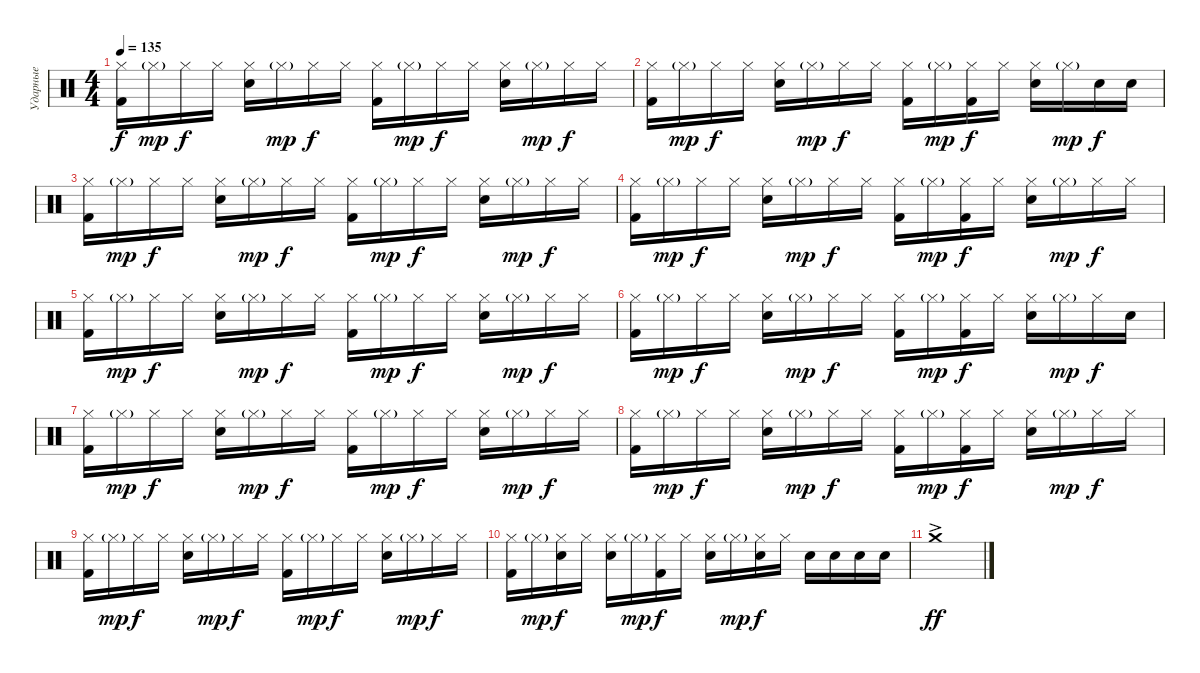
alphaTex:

\track ("Ударные" "Ударные") {instrument percussion}
\staff {score}
\articulation defaults
\ts (4 4)
\tempo 135
\clef neutral
\ks c
("Hi-Hat (closed)" "Kick (hit) 2").16{dy f} "Hi-Hat (closed)"{g}.16{dy mp} "Hi-Hat (closed)".16{dy f} "Hi-Hat (closed)".16 ("Hi-Hat (closed)" "Snare (hit) 2").16 "Hi-Hat (closed)"{g}.16{dy mp} "Hi-Hat (closed)".16{dy f} "Hi-Hat (closed)".16 ("Hi-Hat (closed)" "Kick (hit) 2").16 "Hi-Hat (closed)"{g}.16{dy mp} "Hi-Hat (closed)".16{dy f} "Hi-Hat (closed)".16 ("Hi-Hat (closed)" "Snare (hit) 2").16 "Hi-Hat (closed)"{g}.16{dy mp} "Hi-Hat (closed)".16{dy f} "Hi-Hat (closed)".16 |
("Hi-Hat (closed)" "Kick (hit) 2").16 "Hi-Hat (closed)"{g}.16{dy mp} "Hi-Hat (closed)".16{dy f} "Hi-Hat (closed)".16 ("Hi-Hat (closed)" "Snare (hit) 2").16 "Hi-Hat (closed)"{g}.16{dy mp} "Hi-Hat (closed)".16{dy f} "Hi-Hat (closed)".16 ("Hi-Hat (closed)" "Kick (hit) 2").16 "Hi-Hat (closed)"{g}.16{dy mp} ("Hi-Hat (closed)" "Kick (hit) 2").16{dy f} "Hi-Hat (closed)".16 ("Hi-Hat (closed)" "Snare (hit) 2").16 "Hi-Hat (closed)"{g}.16{dy mp} "Snare (hit) 2".16{dy f} "Snare (hit) 2".16 |
("Hi-Hat (closed)" "Kick (hit) 2").16 "Hi-Hat (closed)"{g}.16{dy mp} "Hi-Hat (closed)".16{dy f} "Hi-Hat (closed)".16 ("Hi-Hat (closed)" "Snare (hit) 2").16 "Hi-Hat (closed)"{g}.16{dy mp} "Hi-Hat (closed)".16{dy f} "Hi-Hat (closed)".16 ("Hi-Hat (closed)" "Kick (hit) 2").16 "Hi-Hat (closed)"{g}.16{dy mp} "Hi-Hat (closed)".16{dy f} "Hi-Hat (closed)".16 ("Hi-Hat (closed)" "Snare (hit) 2").16 "Hi-Hat (closed)"{g}.16{dy mp} "Hi-Hat (closed)".16{dy f} "Hi-Hat (closed)".16 |
("Hi-Hat (closed)" "Kick (hit) 2").16 "Hi-Hat (closed)"{g}.16{dy mp} "Hi-Hat (closed)".16{dy f} "Hi-Hat (closed)".16 ("Hi-Hat (closed)" "Snare (hit) 2").16 "Hi-Hat (closed)"{g}.16{dy mp} "Hi-Hat (closed)".16{dy f} "Hi-Hat (closed)".16 ("Hi-Hat (closed)" "Kick (hit) 2").16 "Hi-Hat (closed)"{g}.16{dy mp} ("Hi-Hat (closed)" "Kick (hit) 2").16{dy f} "Hi-Hat (closed)".16 ("Hi-Hat (closed)" "Snare (hit) 2").16 "Hi-Hat (closed)"{g}.16{dy mp} "Hi-Hat (closed)".16{dy f} "Hi-Hat (closed)".16 |
("Hi-Hat (closed)" "Kick (hit) 2").16 "Hi-Hat (closed)"{g}.16{dy mp} "Hi-Hat (closed)".16{dy f} "Hi-Hat (closed)".16 ("Hi-Hat (closed)" "Snare (hit) 2").16 "Hi-Hat (closed)"{g}.16{dy mp} "Hi-Hat (closed)".16{dy f} "Hi-Hat (closed)".16 ("Hi-Hat (closed)" "Kick (hit) 2").16 "Hi-Hat (closed)"{g}.16{dy mp} "Hi-Hat (closed)".16{dy f} "Hi-Hat (closed)".16 ("Hi-Hat (closed)" "Snare (hit) 2").16 "Hi-Hat (closed)"{g}.16{dy mp} "Hi-Hat (closed)".16{dy f} "Hi-Hat (closed)".16 |
("Hi-Hat (closed)" "Kick (hit) 2").16 "Hi-Hat (closed)"{g}.16{dy mp} "Hi-Hat (closed)".16{dy f} "Hi-Hat (closed)".16 ("Hi-Hat (closed)" "Snare (hit) 2").16 "Hi-Hat (closed)"{g}.16{dy mp} "Hi-Hat (closed)".16{dy f} "Hi-Hat (closed)".16 ("Hi-Hat (closed)" "Kick (hit) 2").16 "Hi-Hat (closed)"{g}.16{dy mp} ("Hi-Hat (closed)" "Kick (hit) 2").16{dy f} "Hi-Hat (closed)".16 ("Hi-Hat (closed)" "Snare (hit) 2").16 "Hi-Hat (closed)"{g}.16{dy mp} "Hi-Hat (closed)".16{dy f} "Snare (hit) 2".16 |
("Hi-Hat (closed)" "Kick (hit) 2").16 "Hi-Hat (closed)"{g}.16{dy mp} "Hi-Hat (closed)".16{dy f} "Hi-Hat (closed)".16 ("Hi-Hat (closed)" "Snare (hit) 2").16 "Hi-Hat (closed)"{g}.16{dy mp} "Hi-Hat (closed)".16{dy f} "Hi-Hat (closed)".16 ("Hi-Hat (closed)" "Kick (hit) 2").16 "Hi-Hat (closed)"{g}.16{dy mp} "Hi-Hat (closed)".16{dy f} "Hi-Hat (closed)".16 ("Hi-Hat (closed)" "Snare (hit) 2").16 "Hi-Hat (closed)"{g}.16{dy mp} "Hi-Hat (closed)".16{dy f} "Hi-Hat (closed)".16 |
("Hi-Hat (closed)" "Kick (hit) 2").16 "Hi-Hat (closed)"{g}.16{dy mp} "Hi-Hat (closed)".16{dy f} "Hi-Hat (closed)".16 ("Hi-Hat (closed)" "Snare (hit) 2").16 "Hi-Hat (closed)"{g}.16{dy mp} "Hi-Hat (closed)".16{dy f} "Hi-Hat (closed)".16 ("Hi-Hat (closed)" "Kick (hit) 2").16 "Hi-Hat (closed)"{g}.16{dy mp} ("Hi-Hat (closed)" "Kick (hit) 2").16{dy f} "Hi-Hat (closed)".16 ("Hi-Hat (closed)" "Snare (hit) 2").16 "Hi-Hat (closed)"{g}.16{dy mp} "Hi-Hat (closed)".16{dy f} "Hi-Hat (closed)".16 |
("Hi-Hat (closed)" "Kick (hit) 2").16 "Hi-Hat (closed)"{g}.16{dy mp} "Hi-Hat (closed)".16{dy f} "Hi-Hat (closed)".16 ("Hi-Hat (closed)" "Snare (hit) 2").16 "Hi-Hat (closed)"{g}.16{dy mp} "Hi-Hat (closed)".16{dy f} "Hi-Hat (closed)".16 ("Hi-Hat (closed)" "Kick (hit) 2").16 "Hi-Hat (closed)"{g}.16{dy mp} "Hi-Hat (closed)".16{dy f} "Hi-Hat (closed)".16 ("Hi-Hat (closed)" "Snare (hit) 2").16 "Hi-Hat (closed)"{g}.16{dy mp} "Hi-Hat (closed)".16{dy f} "Hi-Hat (closed)".16 |
("Hi-Hat (closed)" "Kick (hit) 2").16 "Hi-Hat (closed)"{g}.16{dy mp} ("Hi-Hat (closed)" "Snare (hit) 2").16{dy f} "Hi-Hat (closed)".16 ("Hi-Hat (closed)" "Snare (hit) 2").16 "Hi-Hat (closed)"{g}.16{dy mp} ("Hi-Hat (closed)" "Kick (hit) 2").16{dy f} "Hi-Hat (closed)".16 ("Hi-Hat (closed)" "Snare (hit) 2").16 "Hi-Hat (closed)"{g}.16{dy mp} ("Hi-Hat (closed)" "Snare (hit) 2").16{dy f} "Hi-Hat (closed)".16 "Snare (hit) 2".16 "Snare (hit) 2".16 "Snare (hit) 2".16 "Snare (hit) 2".16 |
"Crash medium (hit)"{ac}.1{dy ff}
